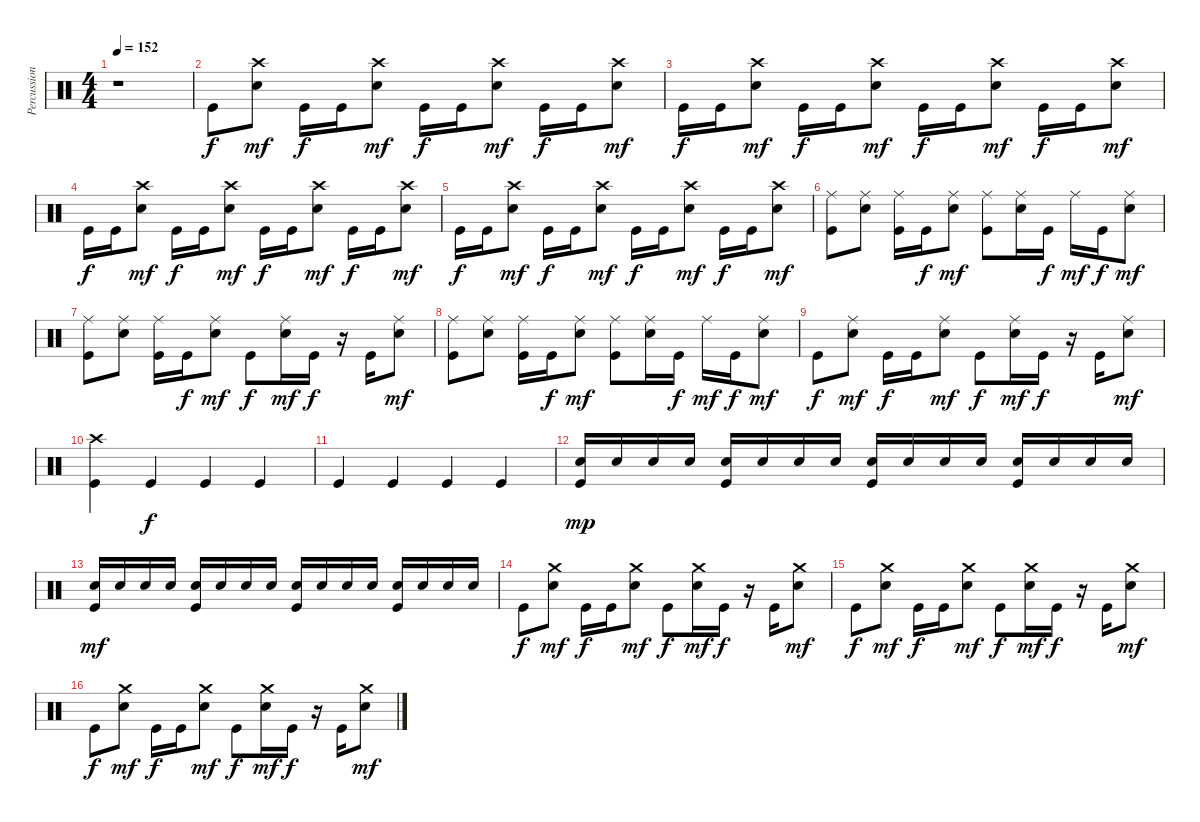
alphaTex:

\track ("Percussion" "Percussion") {instrument percussion}
\staff {score}
\articulation defaults
\ts (4 4)
\tempo 152
\clef neutral
\ks c
r.1{dy mf} |
"Kick (hit)".8{dy f} ("Crash high (hit)" "Electric Snare (hit)").8{dy mf} "Kick (hit)".16{dy f} "Kick (hit)".16 ("Crash high (hit)" "Electric Snare (hit)").8{dy mf} "Kick (hit)".16{dy f} "Kick (hit)".16 ("Crash high (hit)" "Electric Snare (hit)").8{dy mf} "Kick (hit)".16{dy f} "Kick (hit)".16 ("Crash high (hit)" "Electric Snare (hit)").8{dy mf} |
"Kick (hit)".16{dy f} "Kick (hit)".16 ("Crash high (hit)" "Electric Snare (hit)").8{dy mf} "Kick (hit)".16{dy f} "Kick (hit)".16 ("Crash high (hit)" "Electric Snare (hit)").8{dy mf} "Kick (hit)".16{dy f} "Kick (hit)".16 ("Crash high (hit)" "Electric Snare (hit)").8{dy mf} "Kick (hit)".16{dy f} "Kick (hit)".16 ("Crash high (hit)" "Electric Snare (hit)").8{dy mf} |
"Kick (hit)".16{dy f} "Kick (hit)".16 ("Crash high (hit)" "Electric Snare (hit)").8{dy mf} "Kick (hit)".16{dy f} "Kick (hit)".16 ("Crash high (hit)" "Electric Snare (hit)").8{dy mf} "Kick (hit)".16{dy f} "Kick (hit)".16 ("Crash high (hit)" "Electric Snare (hit)").8{dy mf} "Kick (hit)".16{dy f} "Kick (hit)".16 ("Crash high (hit)" "Electric Snare (hit)").8{dy mf} |
"Kick (hit)".16{dy f} "Kick (hit)".16 ("Crash high (hit)" "Electric Snare (hit)").8{dy mf} "Kick (hit)".16{dy f} "Kick (hit)".16 ("Crash high (hit)" "Electric Snare (hit)").8{dy mf} "Kick (hit)".16{dy f} "Kick (hit)".16 ("Crash high (hit)" "Electric Snare (hit)").8{dy mf} "Kick (hit)".16{dy f} "Kick (hit)".16 ("Crash high (hit)" "Electric Snare (hit)").8{dy mf} |
("Ride (middle)" "Kick (hit)").8 ("Ride (middle)" "Electric Snare (hit)").8 ("Ride (middle)" "Kick (hit)").16 "Kick (hit)".16{dy f} ("Ride (middle)" "Electric Snare (hit)").8{dy mf} ("Ride (middle)" "Kick (hit)").8 ("Ride (middle)" "Electric Snare (hit)").16 "Kick (hit)".16{dy f} "Ride (middle)".16{dy mf} "Kick (hit)".16{dy f} ("Ride (middle)" "Electric Snare (hit)").8{dy mf} |
("Ride (middle)" "Kick (hit)").8 ("Ride (middle)" "Electric Snare (hit)").8 ("Ride (middle)" "Kick (hit)").16 "Kick (hit)".16{dy f} ("Ride (middle)" "Electric Snare (hit)").8{dy mf} "Kick (hit)".8{dy f} ("Ride (middle)" "Electric Snare (hit)").16{dy mf} "Kick (hit)".16{dy f} r.16 "Kick (hit)".16 ("Ride (middle)" "Electric Snare (hit)").8{dy mf} |
("Ride (middle)" "Kick (hit)").8 ("Ride (middle)" "Electric Snare (hit)").8 ("Ride (middle)" "Kick (hit)").16 "Kick (hit)".16{dy f} ("Ride (middle)" "Electric Snare (hit)").8{dy mf} ("Ride (middle)" "Kick (hit)").8 ("Ride (middle)" "Electric Snare (hit)").16 "Kick (hit)".16{dy f} "Ride (middle)".16{dy mf} "Kick (hit)".16{dy f} ("Ride (middle)" "Electric Snare (hit)").8{dy mf} |
"Kick (hit)".8{dy f} ("Ride (middle)" "Electric Snare (hit)").8{dy mf} "Kick (hit)".16{dy f} "Kick (hit)".16 ("Ride (middle)" "Electric Snare (hit)").8{dy mf} "Kick (hit)".8{dy f} ("Ride (middle)" "Electric Snare (hit)").16{dy mf} "Kick (hit)".16{dy f} r.16 "Kick (hit)".16 ("Ride (middle)" "Electric Snare (hit)").8{dy mf} |
("Crash high (hit)" "Kick (hit)").4 "Kick (hit)".4{dy f} "Kick (hit)".4 "Kick (hit)".4 |
"Kick (hit)".4 "Kick (hit)".4 "Kick (hit)".4 "Kick (hit)".4 |
("Electric Snare (hit)" "Kick (hit)").16{dy mp} "Electric Snare (hit)".16 "Electric Snare (hit)".16 "Electric Snare (hit)".16 ("Electric Snare (hit)" "Kick (hit)").16 "Electric Snare (hit)".16 "Electric Snare (hit)".16 "Electric Snare (hit)".16 ("Electric Snare (hit)" "Kick (hit)").16 "Electric Snare (hit)".16 "Electric Snare (hit)".16 "Electric Snare (hit)".16 ("Electric Snare (hit)" "Kick (hit)").16 "Electric Snare (hit)".16 "Electric Snare (hit)".16 "Electric Snare (hit)".16 |
("Electric Snare (hit)" "Kick (hit)").16{dy mf} "Electric Snare (hit)".16 "Electric Snare (hit)".16 "Electric Snare (hit)".16 ("Electric Snare (hit)" "Kick (hit)").16 "Electric Snare (hit)".16 "Electric Snare (hit)".16 "Electric Snare (hit)".16 ("Electric Snare (hit)" "Kick (hit)").16 "Electric Snare (hit)".16 "Electric Snare (hit)".16 "Electric Snare (hit)".16 ("Electric Snare (hit)" "Kick (hit)").16 "Electric Snare (hit)".16 "Electric Snare (hit)".16 "Electric Snare (hit)".16 |
"Kick (hit)".8{dy f} ("Crash medium (hit)" "Electric Snare (hit)").8{dy mf} "Kick (hit)".16{dy f} "Kick (hit)".16 ("Crash medium (hit)" "Electric Snare (hit)").8{dy mf} "Kick (hit)".8{dy f} ("Crash medium (hit)" "Electric Snare (hit)").16{dy mf} "Kick (hit)".16{dy f} r.16 "Kick (hit)".16 ("Crash medium (hit)" "Electric Snare (hit)").8{dy mf} |
"Kick (hit)".8{dy f} ("Crash medium (hit)" "Electric Snare (hit)").8{dy mf} "Kick (hit)".16{dy f} "Kick (hit)".16 ("Crash medium (hit)" "Electric Snare (hit)").8{dy mf} "Kick (hit)".8{dy f} ("Crash medium (hit)" "Electric Snare (hit)").16{dy mf} "Kick (hit)".16{dy f} r.16 "Kick (hit)".16 ("Crash medium (hit)" "Electric Snare (hit)").8{dy mf} |
"Kick (hit)".8{dy f} ("Crash medium (hit)" "Electric Snare (hit)").8{dy mf} "Kick (hit)".16{dy f} "Kick (hit)".16 ("Crash medium (hit)" "Electric Snare (hit)").8{dy mf} "Kick (hit)".8{dy f} ("Crash medium (hit)" "Electric Snare (hit)").16{dy mf} "Kick (hit)".16{dy f} r.16 "Kick (hit)".16 ("Crash medium (hit)" "Electric Snare (hit)").8{dy mf}
